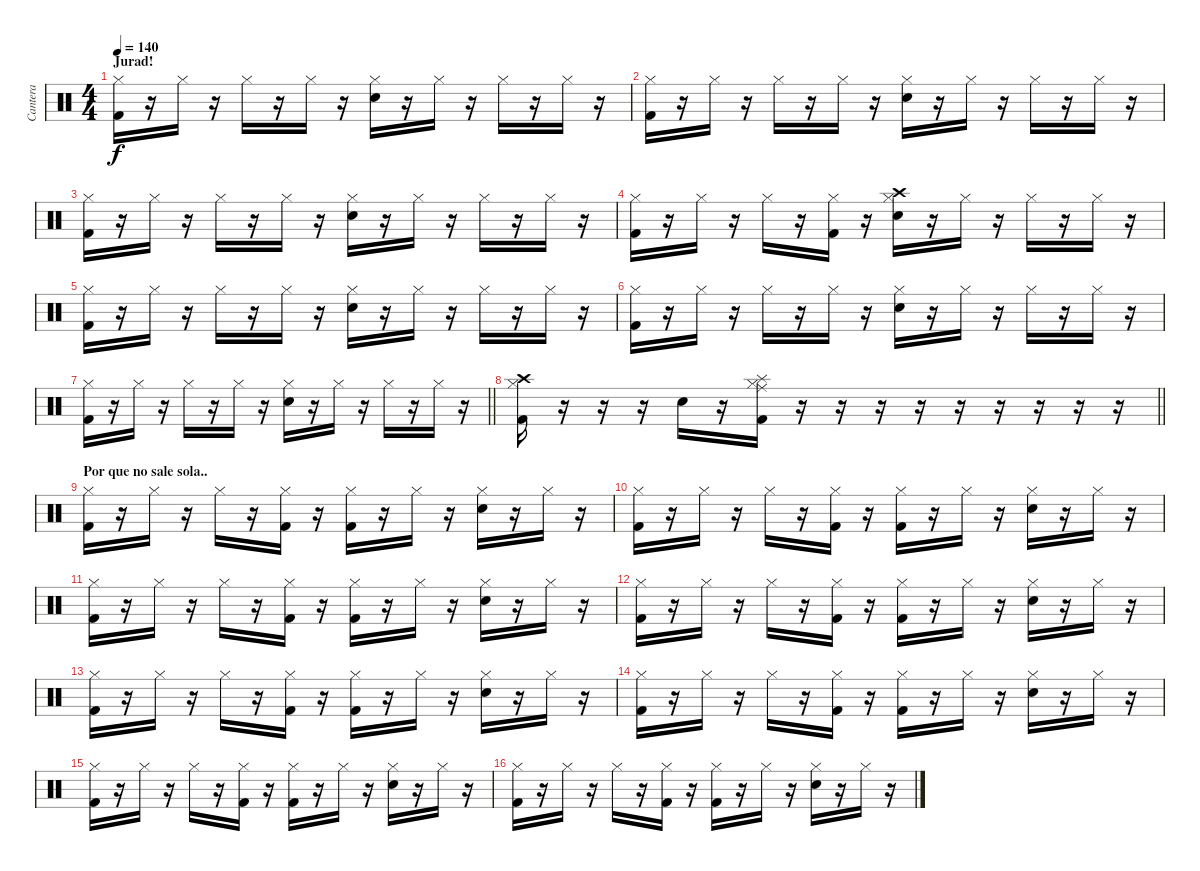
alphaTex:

\track ("Cantera" "Cantera") {instrument percussion}
\staff {score}
\articulation defaults
\ts (4 4)
\section ("" "Jurad!")
\tempo 140
\clef neutral
\ks c
("Hi-Hat (closed)" "Kick (hit) 2").16{dy f} r.16 "Hi-Hat (closed)".16 r.16 "Hi-Hat (closed)".16 r.16 "Hi-Hat (closed)".16 r.16 ("Hi-Hat (closed)" "Snare (hit) 2").16 r.16 "Hi-Hat (closed)".16 r.16 "Hi-Hat (closed)".16 r.16 "Hi-Hat (closed)".16 r.16 |
("Hi-Hat (closed)" "Kick (hit) 2").16 r.16 "Hi-Hat (closed)".16 r.16 "Hi-Hat (closed)".16 r.16 "Hi-Hat (closed)".16 r.16 ("Hi-Hat (closed)" "Snare (hit) 2").16 r.16 "Hi-Hat (closed)".16 r.16 "Hi-Hat (closed)".16 r.16 "Hi-Hat (closed)".16 r.16 |
("Hi-Hat (closed)" "Kick (hit) 2").16 r.16 "Hi-Hat (closed)".16 r.16 "Hi-Hat (closed)".16 r.16 "Hi-Hat (closed)".16 r.16 ("Hi-Hat (closed)" "Snare (hit) 2").16 r.16 "Hi-Hat (closed)".16 r.16 "Hi-Hat (closed)".16 r.16 "Hi-Hat (closed)".16 r.16 |
("Hi-Hat (closed)" "Kick (hit) 2").16 r.16 "Hi-Hat (closed)".16 r.16 "Hi-Hat (closed)".16 r.16 ("Hi-Hat (closed)" "Kick (hit) 2").16 r.16 ("Crash high (hit)" "Hi-Hat (closed)" "Snare (hit) 2").16 r.16 "Hi-Hat (closed)".16 r.16 "Hi-Hat (closed)".16 r.16 "Hi-Hat (closed)".16 r.16 |
("Hi-Hat (closed)" "Kick (hit) 2").16 r.16 "Hi-Hat (closed)".16 r.16 "Hi-Hat (closed)".16 r.16 "Hi-Hat (closed)".16 r.16 ("Hi-Hat (closed)" "Snare (hit) 2").16 r.16 "Hi-Hat (closed)".16 r.16 "Hi-Hat (closed)".16 r.16 "Hi-Hat (closed)".16 r.16 |
("Hi-Hat (closed)" "Kick (hit) 2").16 r.16 "Hi-Hat (closed)".16 r.16 "Hi-Hat (closed)".16 r.16 "Hi-Hat (closed)".16 r.16 ("Hi-Hat (closed)" "Snare (hit) 2").16 r.16 "Hi-Hat (closed)".16 r.16 "Hi-Hat (closed)".16 r.16 "Hi-Hat (closed)".16 r.16 |
\barLineRight lightlight
("Hi-Hat (closed)" "Kick (hit) 2").16 r.16 "Hi-Hat (closed)".16 r.16 "Hi-Hat (closed)".16 r.16 "Hi-Hat (closed)".16 r.16 ("Hi-Hat (closed)" "Snare (hit) 2").16 r.16 "Hi-Hat (closed)".16 r.16 "Hi-Hat (closed)".16 r.16 "Hi-Hat (closed)".16 r.16 |
\barLineRight lightlight
("Crash high (hit)" "Hi-Hat (closed)" "Kick (hit) 2").16 r.16 r.16 r.16 "Snare (hit) 2".16 r.16 ("Splash (hit)" "Hi-Hat (closed)" "Ride (middle)" "Kick (hit) 2").16 r.16 r.16 r.16 r.16 r.16 r.16 r.16 r.16 r.16 |
\section ("" "Por que no sale sola..")
("Hi-Hat (closed)" "Kick (hit) 2").16 r.16 "Hi-Hat (closed)".16 r.16 "Hi-Hat (closed)".16 r.16 ("Hi-Hat (closed)" "Kick (hit) 2").16 r.16 ("Hi-Hat (closed)" "Kick (hit) 2").16 r.16 "Hi-Hat (closed)".16 r.16 ("Hi-Hat (closed)" "Snare (hit) 2").16 r.16 "Hi-Hat (closed)".16 r.16 |
("Hi-Hat (closed)" "Kick (hit) 2").16 r.16 "Hi-Hat (closed)".16 r.16 "Hi-Hat (closed)".16 r.16 ("Hi-Hat (closed)" "Kick (hit) 2").16 r.16 ("Hi-Hat (closed)" "Kick (hit) 2").16 r.16 "Hi-Hat (closed)".16 r.16 ("Hi-Hat (closed)" "Snare (hit) 2").16 r.16 "Hi-Hat (closed)".16 r.16 |
("Hi-Hat (closed)" "Kick (hit) 2").16 r.16 "Hi-Hat (closed)".16 r.16 "Hi-Hat (closed)".16 r.16 ("Hi-Hat (closed)" "Kick (hit) 2").16 r.16 ("Hi-Hat (closed)" "Kick (hit) 2").16 r.16 "Hi-Hat (closed)".16 r.16 ("Hi-Hat (closed)" "Snare (hit) 2").16 r.16 "Hi-Hat (closed)".16 r.16 |
("Hi-Hat (closed)" "Kick (hit) 2").16 r.16 "Hi-Hat (closed)".16 r.16 "Hi-Hat (closed)".16 r.16 ("Hi-Hat (closed)" "Kick (hit) 2").16 r.16 ("Hi-Hat (closed)" "Kick (hit) 2").16 r.16 "Hi-Hat (closed)".16 r.16 ("Hi-Hat (closed)" "Snare (hit) 2").16 r.16 "Hi-Hat (closed)".16 r.16 |
("Hi-Hat (closed)" "Kick (hit) 2").16 r.16 "Hi-Hat (closed)".16 r.16 "Hi-Hat (closed)".16 r.16 ("Hi-Hat (closed)" "Kick (hit) 2").16 r.16 ("Hi-Hat (closed)" "Kick (hit) 2").16 r.16 "Hi-Hat (closed)".16 r.16 ("Hi-Hat (closed)" "Snare (hit) 2").16 r.16 "Hi-Hat (closed)".16 r.16 |
("Hi-Hat (closed)" "Kick (hit) 2").16 r.16 "Hi-Hat (closed)".16 r.16 "Hi-Hat (closed)".16 r.16 ("Hi-Hat (closed)" "Kick (hit) 2").16 r.16 ("Hi-Hat (closed)" "Kick (hit) 2").16 r.16 "Hi-Hat (closed)".16 r.16 ("Hi-Hat (closed)" "Snare (hit) 2").16 r.16 "Hi-Hat (closed)".16 r.16 |
("Hi-Hat (closed)" "Kick (hit) 2").16 r.16 "Hi-Hat (closed)".16 r.16 "Hi-Hat (closed)".16 r.16 ("Hi-Hat (closed)" "Kick (hit) 2").16 r.16 ("Hi-Hat (closed)" "Kick (hit) 2").16 r.16 "Hi-Hat (closed)".16 r.16 ("Hi-Hat (closed)" "Snare (hit) 2").16 r.16 "Hi-Hat (closed)".16 r.16 |
("Hi-Hat (closed)" "Kick (hit) 2").16 r.16 "Hi-Hat (closed)".16 r.16 "Hi-Hat (closed)".16 r.16 ("Hi-Hat (closed)" "Kick (hit) 2").16 r.16 ("Hi-Hat (closed)" "Kick (hit) 2").16 r.16 "Hi-Hat (closed)".16 r.16 ("Hi-Hat (closed)" "Snare (hit) 2").16 r.16 "Hi-Hat (closed)".16 r.16
